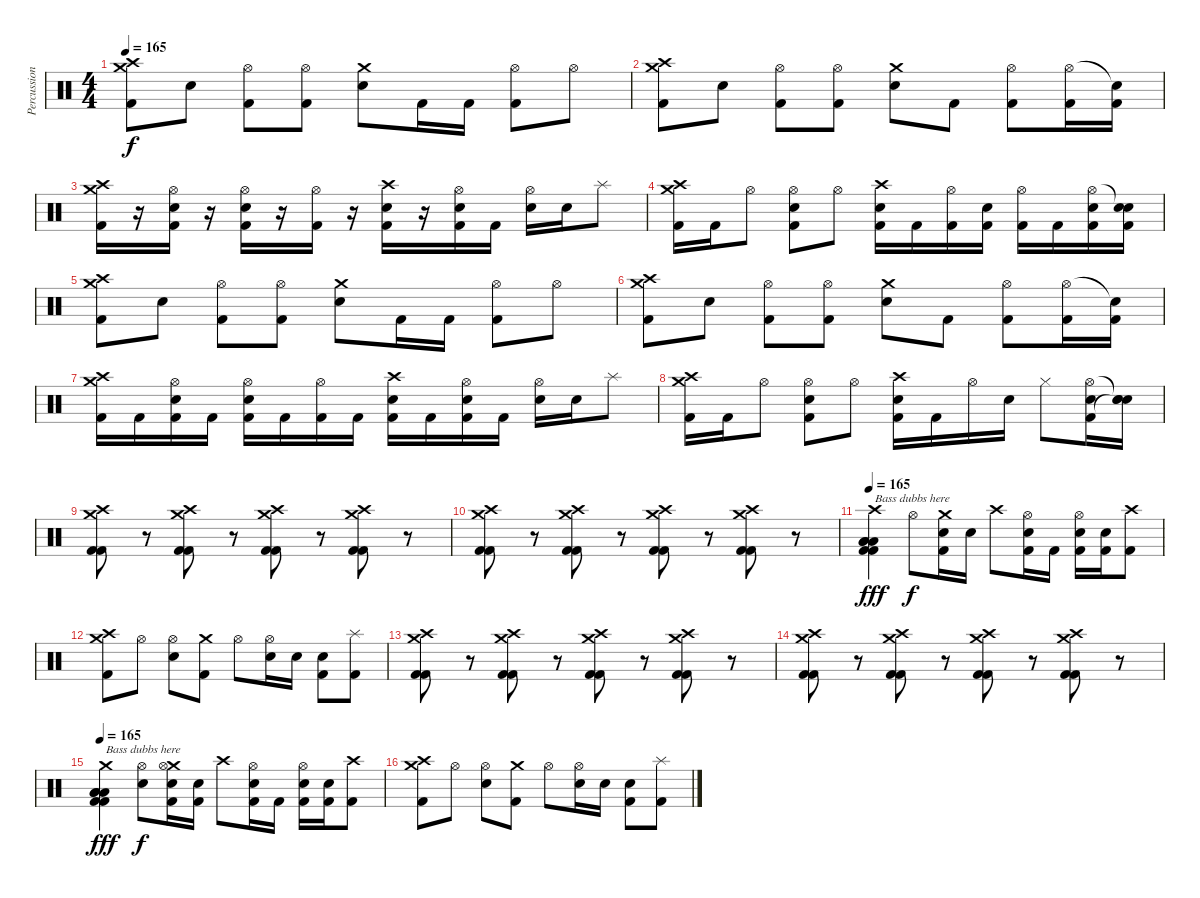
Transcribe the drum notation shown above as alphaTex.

\track ("Percussion" "Percussion") {instrument percussion}
\staff {score}
\articulation defaults
\ts (4 4)
\tempo 165
\clef neutral
\ks c
("Crash medium (hit)" "Crash high (hit)" "Kick (hit) 2").8{dy f} "Electric Snare (hit)".8 ("Hi-Hat (open)" "Kick (hit) 2").8 ("Hi-Hat (open)" "Kick (hit) 2").8 ("Crash medium (hit)" "Electric Snare (hit)").8 "Kick (hit) 2".16 "Kick (hit) 2".16 ("Hi-Hat (open)" "Kick (hit) 2").8 "Hi-Hat (open)".8 |
("Crash medium (hit)" "Crash high (hit)" "Kick (hit) 2").8 "Electric Snare (hit)".8 ("Hi-Hat (open)" "Kick (hit) 2").8 ("Hi-Hat (open)" "Kick (hit) 2").8 ("Crash medium (hit)" "Electric Snare (hit)").8 "Kick (hit) 2".8 ("Hi-Hat (open)" "Kick (hit) 2").8 ("Hi-Hat (open)" "Kick (hit) 2").16 ("Snare (hit)"{t} "Kick (hit) 2").16 |
("Crash medium (hit)" "Crash high (hit)" "Kick (hit) 2").16 r.16 ("Hi-Hat (open)" "Electric Snare (hit)" "Kick (hit) 2").16 r.16 ("Hi-Hat (open)" "Electric Snare (hit)" "Kick (hit) 2").16 r.16 ("Hi-Hat (open)" "Kick (hit) 2").16 r.16 ("Crash high (hit)" "Electric Snare (hit)" "Kick (hit) 2").16 r.16 ("Hi-Hat (open)" "Electric Snare (hit)" "Kick (hit) 2").16 "Kick (hit) 2".16 ("Hi-Hat (open)" "Electric Snare (hit)").16 "Electric Snare (hit)".16 "Splash (hit)".8 |
("Crash medium (hit)" "Crash high (hit)" "Kick (hit) 2").16 "Kick (hit) 2".16 "Hi-Hat (open)".8 ("Hi-Hat (open)" "Electric Snare (hit)" "Kick (hit) 2").8 "Hi-Hat (open)".8 ("Crash high (hit)" "Electric Snare (hit)" "Kick (hit) 2").16 "Kick (hit) 2".16 ("Hi-Hat (open)" "Kick (hit) 2").16 ("Electric Snare (hit)" "Kick (hit) 2").16 ("Hi-Hat (open)" "Kick (hit) 2").16 "Kick (hit) 2".16 ("Hi-Hat (open)" "Electric Snare (hit)" "Kick (hit) 2").16 ("Snare (hit)"{t} "Electric Snare (hit)" "Kick (hit) 2").16 |
("Crash medium (hit)" "Crash high (hit)" "Kick (hit) 2").8 "Electric Snare (hit)".8 ("Hi-Hat (open)" "Kick (hit) 2").8 ("Hi-Hat (open)" "Kick (hit) 2").8 ("Crash medium (hit)" "Electric Snare (hit)").8 "Kick (hit) 2".16 "Kick (hit) 2".16 ("Hi-Hat (open)" "Kick (hit) 2").8 "Hi-Hat (open)".8 |
("Crash medium (hit)" "Crash high (hit)" "Kick (hit) 2").8 "Electric Snare (hit)".8 ("Hi-Hat (open)" "Kick (hit) 2").8 ("Hi-Hat (open)" "Kick (hit) 2").8 ("Crash medium (hit)" "Electric Snare (hit)").8 "Kick (hit) 2".8 ("Hi-Hat (open)" "Kick (hit) 2").8 ("Hi-Hat (open)" "Kick (hit) 2").16 ("Snare (hit)"{t} "Kick (hit) 2").16 |
("Crash medium (hit)" "Crash high (hit)" "Kick (hit) 2").16 "Kick (hit) 2".16 ("Hi-Hat (open)" "Electric Snare (hit)" "Kick (hit) 2").16 "Kick (hit) 2".16 ("Hi-Hat (open)" "Electric Snare (hit)" "Kick (hit) 2").16 "Kick (hit) 2".16 ("Hi-Hat (open)" "Kick (hit) 2").16 "Kick (hit) 2".16 ("Crash high (hit)" "Electric Snare (hit)" "Kick (hit) 2").16 "Kick (hit) 2".16 ("Hi-Hat (open)" "Electric Snare (hit)" "Kick (hit) 2").16 "Kick (hit) 2".16 ("Hi-Hat (open)" "Electric Snare (hit)").16 "Electric Snare (hit)".16 "Splash (hit)".8 |
("Crash medium (hit)" "Crash high (hit)" "Kick (hit) 2").16 "Kick (hit) 2".16 "Hi-Hat (open)".8 ("Hi-Hat (open)" "Electric Snare (hit)" "Kick (hit) 2").8 "Hi-Hat (open)".8 ("Crash high (hit)" "Electric Snare (hit)" "Kick (hit) 2").16 "Kick (hit) 2".16 "Hi-Hat (open)".16 "Electric Snare (hit)".16 "Hi-Hat (closed)".8 ("Hi-Hat (open)" "Electric Snare (hit)" "Kick (hit) 2").16 ("Snare (hit)"{t} "Electric Snare (hit)" "Snare (hit)"{t}).16 |
("Crash medium (hit)" "Crash high (hit)" "Kick (hit) 2" "Kick (hit) 2").8 r.8 ("Crash medium (hit)" "Crash high (hit)" "Kick (hit) 2" "Kick (hit) 2").8 r.8 ("Crash medium (hit)" "Crash high (hit)" "Kick (hit) 2" "Kick (hit) 2").8 r.8 ("Crash medium (hit)" "Crash high (hit)" "Kick (hit) 2" "Kick (hit) 2").8 r.8 |
("Crash medium (hit)" "Crash high (hit)" "Kick (hit) 2" "Kick (hit) 2").8 r.8 ("Crash medium (hit)" "Crash high (hit)" "Kick (hit) 2" "Kick (hit) 2").8 r.8 ("Crash medium (hit)" "Crash high (hit)" "Kick (hit) 2" "Kick (hit) 2").8 r.8 ("Crash medium (hit)" "Crash high (hit)" "Kick (hit) 2" "Kick (hit) 2").8 r.8 |
\tempo 165
("Crash high (hit)" "Low Floor Tom (hit)" "Low Floor Tom (hit)" "Low Floor Tom (hit)" "Kick (hit) 2" "Kick (hit) 2").4{txt "Bass dubbs here" dy fff} "Hi-Hat (open)".8{dy f} ("Crash medium (hit)" "Electric Snare (hit)" "Kick (hit) 2").16 "Electric Snare (hit)".16 "Crash high (hit)".8 ("Hi-Hat (open)" "Electric Snare (hit)" "Kick (hit) 2").16 "Kick (hit) 2".16 ("Hi-Hat (open)" "Electric Snare (hit)" "Kick (hit) 2").16 ("Electric Snare (hit)" "Kick (hit) 2").16 ("Crash high (hit)" "Kick (hit) 2").8 |
("Crash medium (hit)" "Crash high (hit)" "Kick (hit) 2").8 "Hi-Hat (open)".8 ("Hi-Hat (open)" "Electric Snare (hit)").8 ("Crash medium (hit)" "Kick (hit) 2").8 "Hi-Hat (open)".8 ("Hi-Hat (open)" "Electric Snare (hit)").16 "Electric Snare (hit)".16 ("Electric Snare (hit)" "Kick (hit) 2").8 ("Splash (hit)" "Kick (hit) 2").8 |
("Crash medium (hit)" "Crash high (hit)" "Kick (hit) 2" "Kick (hit) 2").8 r.8 ("Crash medium (hit)" "Crash high (hit)" "Kick (hit) 2" "Kick (hit) 2").8 r.8 ("Crash medium (hit)" "Crash high (hit)" "Kick (hit) 2" "Kick (hit) 2").8 r.8 ("Crash medium (hit)" "Crash high (hit)" "Kick (hit) 2" "Kick (hit) 2").8 r.8 |
("Crash medium (hit)" "Crash high (hit)" "Kick (hit) 2" "Kick (hit) 2").8 r.8 ("Crash medium (hit)" "Crash high (hit)" "Kick (hit) 2" "Kick (hit) 2").8 r.8 ("Crash medium (hit)" "Crash high (hit)" "Kick (hit) 2" "Kick (hit) 2").8 r.8 ("Crash medium (hit)" "Crash high (hit)" "Kick (hit) 2" "Kick (hit) 2").8 r.8 |
\tempo 165
("Crash medium (hit)" "Low Floor Tom (hit)" "Low Floor Tom (hit)" "Low Floor Tom (hit)" "Kick (hit) 2" "Kick (hit) 2").4{txt "Bass dubbs here" dy fff} ("Hi-Hat (open)" "Electric Snare (hit)").8{dy f} ("Crash medium (hit)" "Hi-Hat (open)" "Electric Snare (hit)" "Kick (hit) 2").16 ("Electric Snare (hit)" "Kick (hit) 2").16 "Crash high (hit)".8 ("Hi-Hat (open)" "Electric Snare (hit)" "Kick (hit) 2").16 "Kick (hit) 2".16 ("Hi-Hat (open)" "Electric Snare (hit)" "Kick (hit) 2").16 ("Electric Snare (hit)" "Kick (hit) 2").16 ("Crash high (hit)" "Kick (hit) 2").8 |
("Crash medium (hit)" "Crash high (hit)" "Kick (hit) 2").8 "Hi-Hat (open)".8 ("Hi-Hat (open)" "Electric Snare (hit)").8 ("Crash medium (hit)" "Kick (hit) 2").8 "Hi-Hat (open)".8 ("Hi-Hat (open)" "Electric Snare (hit)").16 "Electric Snare (hit)".16 ("Electric Snare (hit)" "Kick (hit) 2").8 ("Splash (hit)" "Kick (hit) 2").8
